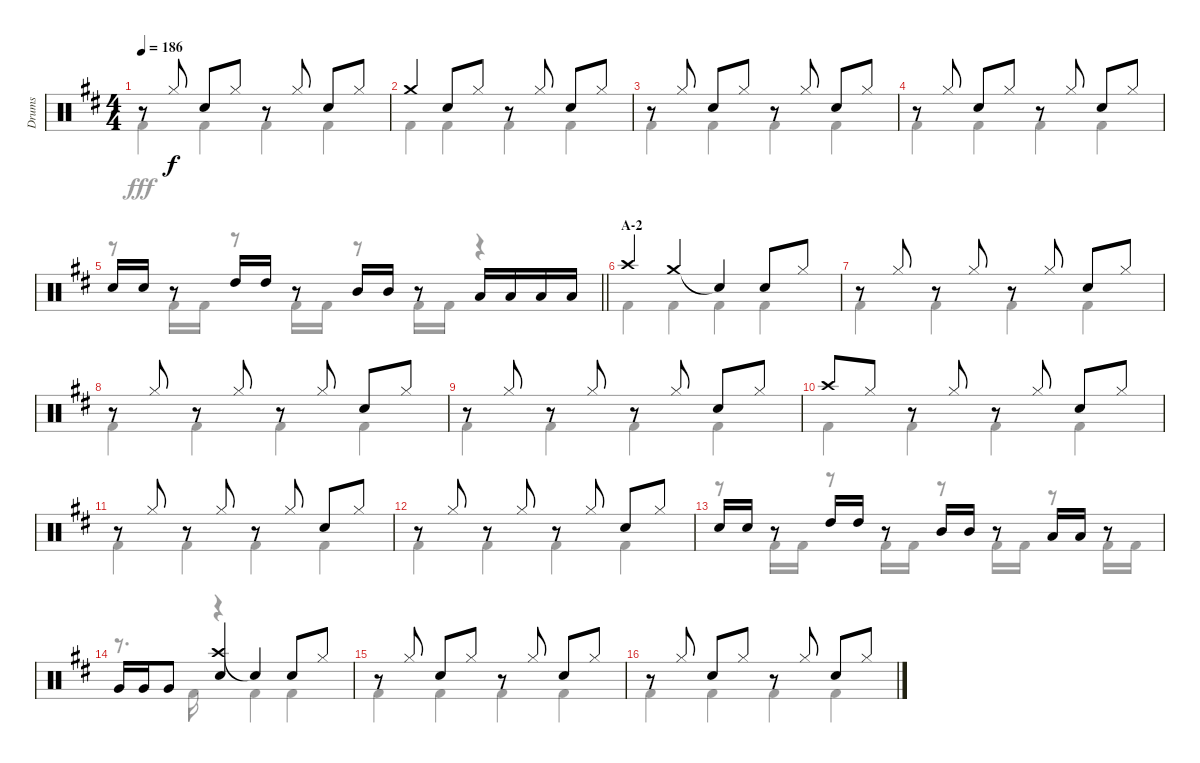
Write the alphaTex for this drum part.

\track ("Drums" "Drums") {instrument percussion}
\staff {score}
\articulation defaults
\voice
\ts (4 4)
\tempo 186
\clef neutral
\ks d
r.8{dy f} "Hi-Hat (closed)".8 "Snare (hit) 2".8 "Hi-Hat (closed)".8 r.8 "Hi-Hat (closed)".8 "Snare (hit) 2".8 "Hi-Hat (closed)".8 |
"Crash medium (hit)".4 "Snare (hit) 2".8 "Hi-Hat (closed)".8 r.8 "Hi-Hat (closed)".8 "Snare (hit) 2".8 "Hi-Hat (closed)".8 |
r.8 "Hi-Hat (closed)".8 "Snare (hit) 2".8 "Hi-Hat (closed)".8 r.8 "Hi-Hat (closed)".8 "Snare (hit) 2".8 "Hi-Hat (closed)".8 |
r.8 "Hi-Hat (closed)".8 "Snare (hit) 2".8 "Hi-Hat (closed)".8 r.8 "Hi-Hat (closed)".8 "Snare (hit) 2".8 "Hi-Hat (closed)".8 |
\barLineRight lightlight "Snare (hit) 2".16 "Snare (hit) 2".16
r.8 "High Tom (hit)".16 "High Tom (hit)".16 r.8 "Mid Tom (hit)".16 "Mid Tom (hit)".16 r.8 "Low Tom (hit)".16 "Low Tom (hit)".16 "Low Tom (hit)".16 "Low Tom (hit)".16 |
\section ("" "A-2")
"Crash high (hit)".4 "Crash medium (hit)".4 "Snare (hit)"{t}.4 "Snare (hit) 2".8 "Hi-Hat (closed)".8 |
r.8 "Hi-Hat (closed)".8 r.8 "Hi-Hat (closed)".8 r.8 "Hi-Hat (closed)".8 "Snare (hit) 2".8 "Hi-Hat (closed)".8 |
r.8 "Hi-Hat (closed)".8 r.8 "Hi-Hat (closed)".8 r.8 "Hi-Hat (closed)".8 "Snare (hit) 2".8 "Hi-Hat (closed)".8 |
r.8 "Hi-Hat (closed)".8 r.8 "Hi-Hat (closed)".8 r.8 "Hi-Hat (closed)".8 "Snare (hit) 2".8 "Hi-Hat (closed)".8 |
"Crash high (hit)".8 "Hi-Hat (closed)".8 r.8 "Hi-Hat (closed)".8 r.8 "Hi-Hat (closed)".8 "Snare (hit) 2".8 "Hi-Hat (closed)".8 |
r.8 "Hi-Hat (closed)".8 r.8 "Hi-Hat (closed)".8 r.8 "Hi-Hat (closed)".8 "Snare (hit) 2".8 "Hi-Hat (closed)".8 |
r.8 "Hi-Hat (closed)".8 r.8 "Hi-Hat (closed)".8 r.8 "Hi-Hat (closed)".8 "Snare (hit) 2".8 "Hi-Hat (closed)".8 |
"Snare (hit) 2".16 "Snare (hit) 2".16 r.8 "High Tom (hit)".16 "High Tom (hit)".16 r.8 "Mid Tom (hit)".16 "Mid Tom (hit)".16 r.8 "Low Tom (hit)".16 "Low Tom (hit)".16 r.8 |
"Very Low Tom (hit)".16 "Very Low Tom (hit)".16 "Very Low Tom (hit)".8 ("Crash high (hit)" "Snare (hit) 2").4 "Snare (hit)"{t}.4 "Snare (hit) 2".8 "Hi-Hat (closed)".8 |
r.8 "Hi-Hat (closed)".8 "Snare (hit) 2".8 "Hi-Hat (closed)".8 r.8 "Hi-Hat (closed)".8 "Snare (hit) 2".8 "Hi-Hat (closed)".8 |
r.8 "Hi-Hat (closed)".8 "Snare (hit) 2".8 "Hi-Hat (closed)".8 r.8 "Hi-Hat (closed)".8 "Snare (hit) 2".8 "Hi-Hat (closed)".8
\voice
\clef neutral
\ottava regular
\simile none
\ks d "Kick (hit) 2".4{dy fff} "Kick (hit) 2".4 "Kick (hit) 2".4 "Kick (hit) 2".4
|
"Kick (hit) 2".4 "Kick (hit) 2".4 "Kick (hit) 2".4 "Kick (hit) 2".4 |
"Kick (hit) 2".4 "Kick (hit) 2".4 "Kick (hit) 2".4 "Kick (hit) 2".4 |
"Kick (hit) 2".4 "Kick (hit) 2".4 "Kick (hit) 2".4 "Kick (hit) 2".4 |
\barLineRight lightlight
r.8 "Kick (hit) 2".16 "Kick (hit) 2".16 r.8 "Kick (hit) 2".16 "Kick (hit) 2".16 r.8 "Kick (hit) 2".16 "Kick (hit) 2".16 r.4 |
"Kick (hit) 2".4 "Kick (hit) 2".4 "Kick (hit) 2".4 "Kick (hit) 2".4 |
"Kick (hit) 2".4 "Kick (hit) 2".4 "Kick (hit) 2".4 "Kick (hit) 2".4 |
"Kick (hit) 2".4 "Kick (hit) 2".4 "Kick (hit) 2".4 "Kick (hit) 2".4 |
"Kick (hit) 2".4 "Kick (hit) 2".4 "Kick (hit) 2".4 "Kick (hit) 2".4 |
"Kick (hit) 2".4 "Kick (hit) 2".4 "Kick (hit) 2".4 "Kick (hit) 2".4 |
"Kick (hit) 2".4 "Kick (hit) 2".4 "Kick (hit) 2".4 "Kick (hit) 2".4 |
"Kick (hit) 2".4 "Kick (hit) 2".4 "Kick (hit) 2".4 "Kick (hit) 2".4 |
r.8 "Kick (hit) 2".16 "Kick (hit) 2".16 r.8 "Kick (hit) 2".16 "Kick (hit) 2".16 r.8 "Kick (hit) 2".16 "Kick (hit) 2".16 r.8 "Kick (hit) 2".16 "Kick (hit) 2".16 |
r.8{d} "Kick (hit) 2".16 r.4 "Kick (hit) 2".4 "Kick (hit) 2".4 |
"Kick (hit) 2".4 "Kick (hit) 2".4 "Kick (hit) 2".4 "Kick (hit) 2".4 |
"Kick (hit) 2".4 "Kick (hit) 2".4 "Kick (hit) 2".4 "Kick (hit) 2".4
